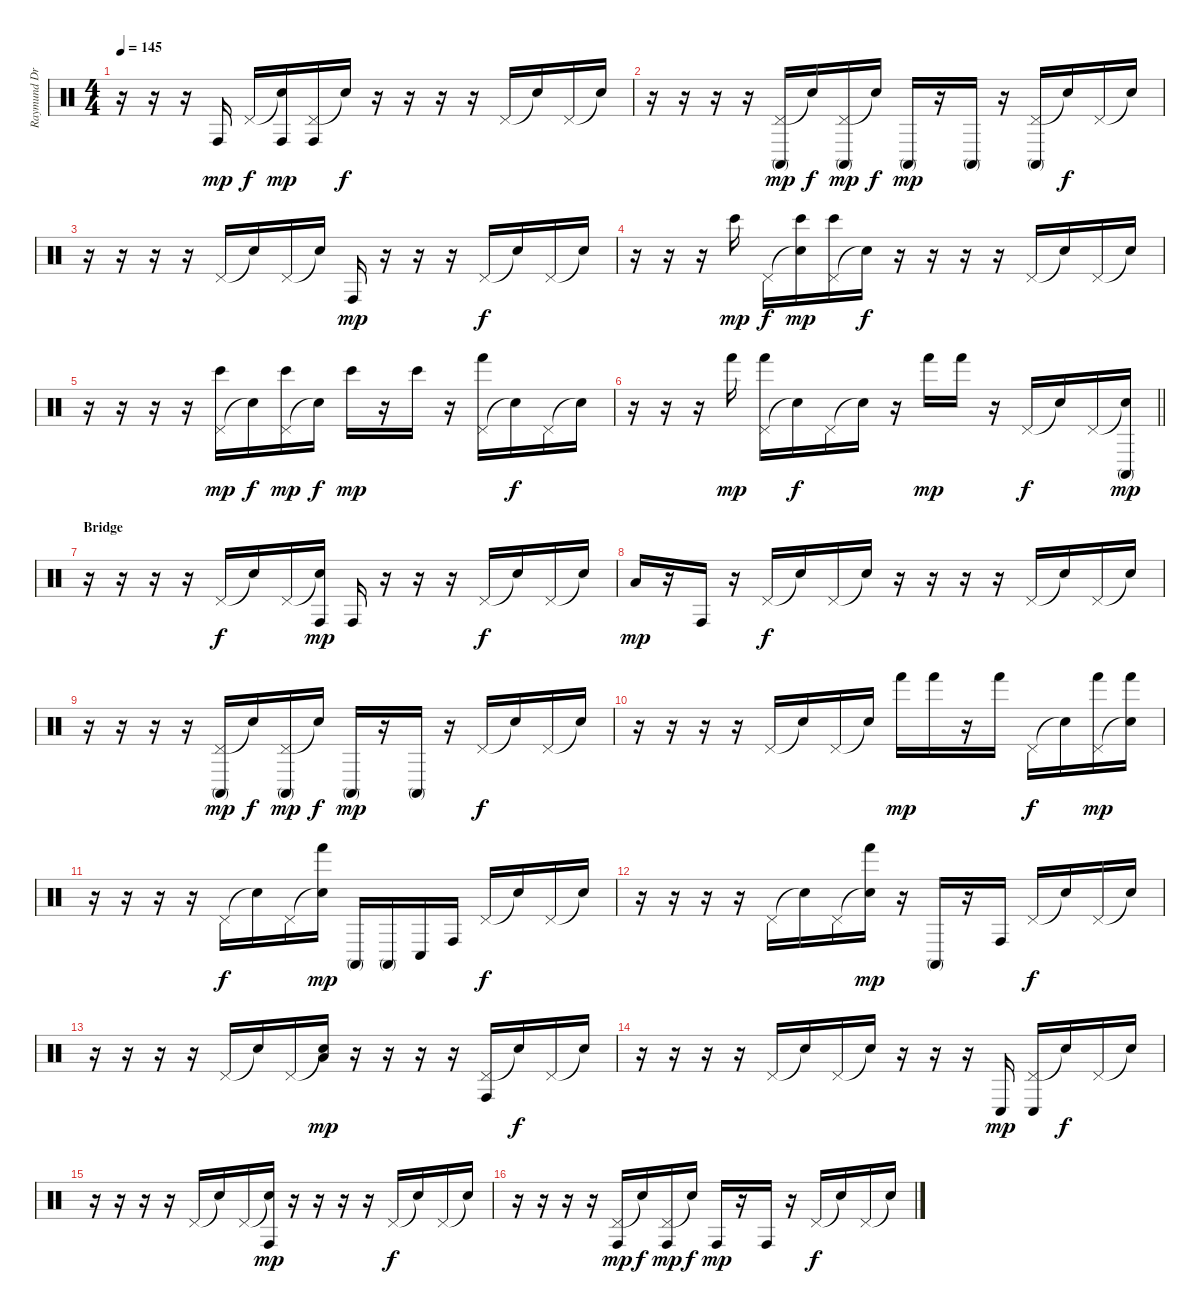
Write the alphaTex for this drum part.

\track ("Raymund Drums" "Raymund Dr") {instrument percussion}
\staff {score}
\articulation defaults
\ts (4 4)
\tempo 145
\clef neutral
\ks c
r.16{dy f} r.16 r.16 "Conga high (hit)".16{dy mp} "Pedal Hi-Hat (hit)".16{dy f} ("Snare (hit)"{t} "Conga high (hit)").16{dy mp} ("Pedal Hi-Hat (hit)" "Conga high (hit)").16 "Snare (hit)"{t}.16{dy f} r.16 r.16 r.16 r.16 "Pedal Hi-Hat (hit)".16 "Snare (hit)"{t}.16 "Pedal Hi-Hat (hit)".16 "Snare (hit)"{t}.16 |
r.16 r.16 r.16 r.16 ("Pedal Hi-Hat (hit)" "Conga high (mute)").16{dy mp} "Snare (hit)"{t}.16{dy f} ("Pedal Hi-Hat (hit)" "Conga high (mute)").16{dy mp} "Snare (hit)"{t}.16{dy f} "Conga high (mute)".16{dy mp} r.16 "Conga high (mute)".16 r.16 ("Pedal Hi-Hat (hit)" "Conga high (mute)").16 "Snare (hit)"{t}.16{dy f} "Pedal Hi-Hat (hit)".16 "Snare (hit)"{t}.16 |
r.16 r.16 r.16 r.16 "Pedal Hi-Hat (hit)".16 "Snare (hit)"{t}.16 "Pedal Hi-Hat (hit)".16 "Snare (hit)"{t}.16 "Conga high (hit)".16{dy mp} r.16 r.16 r.16 "Pedal Hi-Hat (hit)".16{dy f} "Snare (hit)"{t}.16 "Pedal Hi-Hat (hit)".16 "Snare (hit)"{t}.16 |
r.16 r.16 r.16 "Bongo High (hit)".16{dy mp} "Pedal Hi-Hat (hit)".16{dy f} ("Snare (hit)"{t} "Bongo High (hit)").16{dy mp} ("Pedal Hi-Hat (hit)" "Bongo High (hit)").16 "Snare (hit)"{t}.16{dy f} r.16 r.16 r.16 r.16 "Pedal Hi-Hat (hit)".16 "Snare (hit)"{t}.16 "Pedal Hi-Hat (hit)".16 "Snare (hit)"{t}.16 |
r.16 r.16 r.16 r.16 ("Pedal Hi-Hat (hit)" "Bongo High (hit)").16{dy mp} "Snare (hit)"{t}.16{dy f} ("Pedal Hi-Hat (hit)" "Bongo High (hit)").16{dy mp} "Snare (hit)"{t}.16{dy f} "Bongo High (hit)".16{dy mp} r.16 "Bongo High (hit)".16 r.16 ("Pedal Hi-Hat (hit)" "Hand (hit)").16 "Snare (hit)"{t}.16{dy f} "Pedal Hi-Hat (hit)".16 "Snare (hit)"{t}.16 |
\barLineRight lightlight
r.16 r.16 r.16 "Hand (hit)".16{dy mp} ("Pedal Hi-Hat (hit)" "Hand (hit)").16 "Snare (hit)"{t}.16{dy f} "Pedal Hi-Hat (hit)".16 "Snare (hit)"{t}.16 r.16 "Hand (hit)".16{dy mp} "Hand (hit)".16 r.16 "Pedal Hi-Hat (hit)".16{dy f} "Snare (hit)"{t}.16 "Pedal Hi-Hat (hit)".16 ("Snare (hit)"{t} "Conga high (mute)").16{dy mp} |
\section ("" "Bridge")
r.16 r.16 r.16 r.16 "Pedal Hi-Hat (hit)".16{dy f} "Snare (hit)"{t}.16 "Pedal Hi-Hat (hit)".16 ("Snare (hit)"{t} "Conga high (hit)").16{dy mp} "Conga high (hit)".16 r.16 r.16 r.16 "Pedal Hi-Hat (hit)".16{dy f} "Snare (hit)"{t}.16 "Pedal Hi-Hat (hit)".16 "Snare (hit)"{t}.16 |
"Low Tom (hit)".16{dy mp} r.16 "Conga high (hit)".16 r.16 "Pedal Hi-Hat (hit)".16{dy f} "Snare (hit)"{t}.16 "Pedal Hi-Hat (hit)".16 "Snare (hit)"{t}.16 r.16 r.16 r.16 r.16 "Pedal Hi-Hat (hit)".16 "Snare (hit)"{t}.16 "Pedal Hi-Hat (hit)".16 "Snare (hit)"{t}.16 |
r.16 r.16 r.16 r.16 ("Pedal Hi-Hat (hit)" "Conga high (mute)").16{dy mp} "Snare (hit)"{t}.16{dy f} ("Pedal Hi-Hat (hit)" "Conga high (mute)").16{dy mp} "Snare (hit)"{t}.16{dy f} "Conga high (mute)".16{dy mp} r.16 "Conga high (mute)".16 r.16 "Pedal Hi-Hat (hit)".16{dy f} "Snare (hit)"{t}.16 "Pedal Hi-Hat (hit)".16 "Snare (hit)"{t}.16 |
r.16 r.16 r.16 r.16 "Pedal Hi-Hat (hit)".16 "Snare (hit)"{t}.16 "Pedal Hi-Hat (hit)".16 "Snare (hit)"{t}.16 "Hand (hit)".16{dy mp} "Hand (hit)".16 r.16 "Hand (hit)".16 "Pedal Hi-Hat (hit)".16{dy f} "Snare (hit)"{t}.16 ("Pedal Hi-Hat (hit)" "Hand (hit)").16{dy mp} ("Snare (hit)"{t} "Hand (hit)").16 |
r.16 r.16 r.16 r.16 "Pedal Hi-Hat (hit)".16{dy f} "Snare (hit)"{t}.16 "Pedal Hi-Hat (hit)".16 ("Snare (hit)"{t} "Hand (hit)").16{dy mp} "Conga high (mute)".16 "Conga high (mute)".16 "Conga low (hit)".16 "Conga high (hit)".16 "Pedal Hi-Hat (hit)".16{dy f} "Snare (hit)"{t}.16 "Pedal Hi-Hat (hit)".16 "Snare (hit)"{t}.16 |
r.16 r.16 r.16 r.16 "Pedal Hi-Hat (hit)".16 "Snare (hit)"{t}.16 "Pedal Hi-Hat (hit)".16 ("Snare (hit)"{t} "Hand (hit)").16{dy mp} r.16 "Conga high (mute)".16 r.16 "Conga high (hit)".16 "Pedal Hi-Hat (hit)".16{dy f} "Snare (hit)"{t}.16 "Pedal Hi-Hat (hit)".16 "Snare (hit)"{t}.16 |
r.16 r.16 r.16 r.16 "Pedal Hi-Hat (hit)".16 "Snare (hit)"{t}.16 "Pedal Hi-Hat (hit)".16 ("Snare (hit)"{t} "Low Tom (hit)").16{dy mp} r.16 r.16 r.16 r.16 ("Pedal Hi-Hat (hit)" "Conga high (hit)").16 "Snare (hit)"{t}.16{dy f} "Pedal Hi-Hat (hit)".16 "Snare (hit)"{t}.16 |
r.16 r.16 r.16 r.16 "Pedal Hi-Hat (hit)".16 "Snare (hit)"{t}.16 "Pedal Hi-Hat (hit)".16 "Snare (hit)"{t}.16 r.16 r.16 r.16 "Conga low (hit)".16{dy mp} ("Pedal Hi-Hat (hit)" "Conga low (hit)").16 "Snare (hit)"{t}.16{dy f} "Pedal Hi-Hat (hit)".16 "Snare (hit)"{t}.16 |
r.16 r.16 r.16 r.16 "Pedal Hi-Hat (hit)".16 "Snare (hit)"{t}.16 "Pedal Hi-Hat (hit)".16 ("Snare (hit)"{t} "Conga high (hit)").16{dy mp} r.16 r.16 r.16 r.16 "Pedal Hi-Hat (hit)".16{dy f} "Snare (hit)"{t}.16 "Pedal Hi-Hat (hit)".16 "Snare (hit)"{t}.16 |
r.16 r.16 r.16 r.16 ("Pedal Hi-Hat (hit)" "Conga high (hit)").16{dy mp} "Snare (hit)"{t}.16{dy f} ("Pedal Hi-Hat (hit)" "Conga high (hit)").16{dy mp} "Snare (hit)"{t}.16{dy f} "Conga high (hit)".16{dy mp} r.16 "Conga high (hit)".16 r.16 "Pedal Hi-Hat (hit)".16{dy f} "Snare (hit)"{t}.16 "Pedal Hi-Hat (hit)".16 "Snare (hit)"{t}.16
